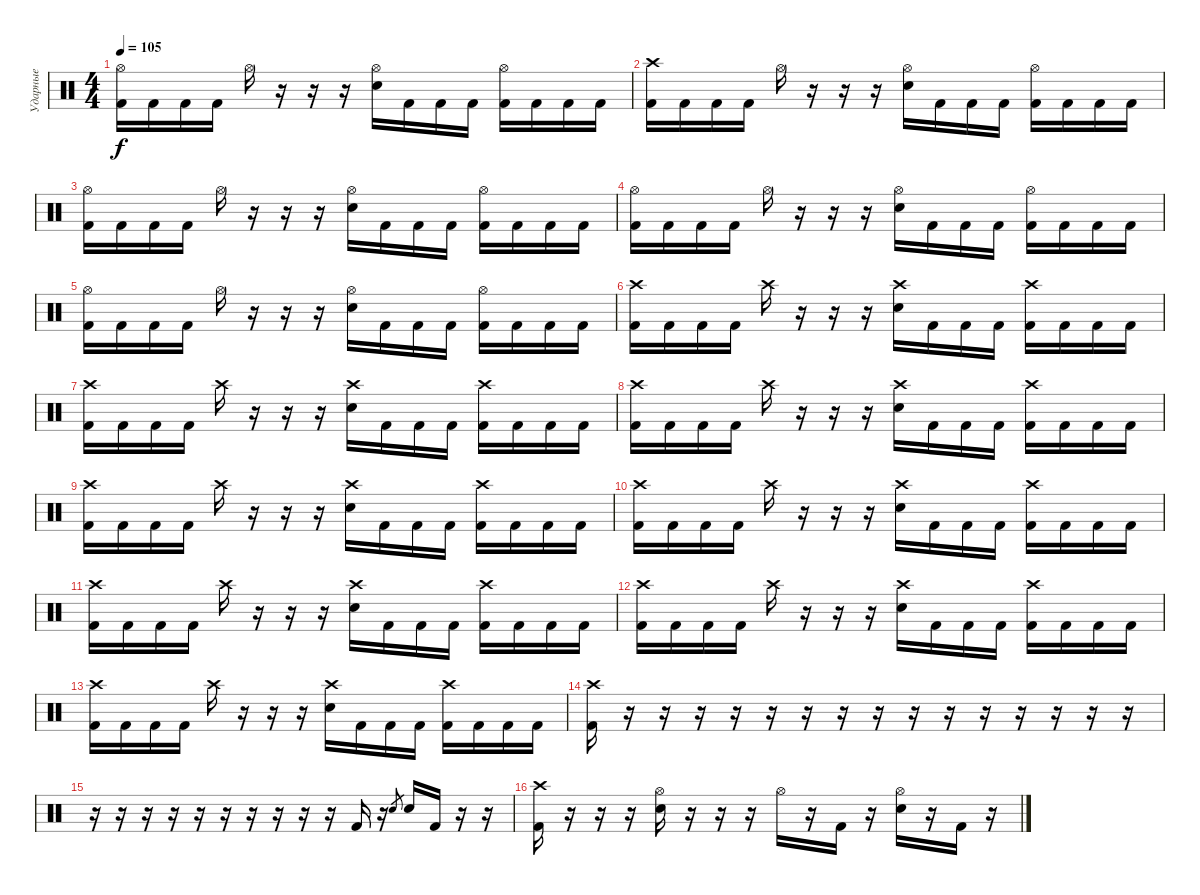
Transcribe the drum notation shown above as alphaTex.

\track ("Ударные" "Ударные") {instrument percussion}
\staff {score}
\articulation defaults
\ts (4 4)
\tempo 105
\clef neutral
\ks c
("Hi-Hat (open)" "Kick (hit) 2").16{dy f} "Kick (hit) 2".16 "Kick (hit) 2".16 "Kick (hit) 2".16 "Hi-Hat (open)".16 r.16 r.16 r.16 ("Hi-Hat (open)" "Electric Snare (hit)").16 "Kick (hit) 2".16 "Kick (hit) 2".16 "Kick (hit) 2".16 ("Hi-Hat (open)" "Kick (hit) 2").16 "Kick (hit) 2".16 "Kick (hit) 2".16 "Kick (hit) 2".16 |
("Crash high (hit)" "Kick (hit) 2").16 "Kick (hit) 2".16 "Kick (hit) 2".16 "Kick (hit) 2".16 "Hi-Hat (open)".16 r.16 r.16 r.16 ("Hi-Hat (open)" "Electric Snare (hit)").16 "Kick (hit) 2".16 "Kick (hit) 2".16 "Kick (hit) 2".16 ("Hi-Hat (open)" "Kick (hit) 2").16 "Kick (hit) 2".16 "Kick (hit) 2".16 "Kick (hit) 2".16 |
("Hi-Hat (open)" "Kick (hit) 2").16 "Kick (hit) 2".16 "Kick (hit) 2".16 "Kick (hit) 2".16 "Hi-Hat (open)".16 r.16 r.16 r.16 ("Hi-Hat (open)" "Electric Snare (hit)").16 "Kick (hit) 2".16 "Kick (hit) 2".16 "Kick (hit) 2".16 ("Hi-Hat (open)" "Kick (hit) 2").16 "Kick (hit) 2".16 "Kick (hit) 2".16 "Kick (hit) 2".16 |
("Hi-Hat (open)" "Kick (hit) 2").16 "Kick (hit) 2".16 "Kick (hit) 2".16 "Kick (hit) 2".16 "Hi-Hat (open)".16 r.16 r.16 r.16 ("Hi-Hat (open)" "Electric Snare (hit)").16 "Kick (hit) 2".16 "Kick (hit) 2".16 "Kick (hit) 2".16 ("Hi-Hat (open)" "Kick (hit) 2").16 "Kick (hit) 2".16 "Kick (hit) 2".16 "Kick (hit) 2".16 |
("Hi-Hat (open)" "Kick (hit) 2").16 "Kick (hit) 2".16 "Kick (hit) 2".16 "Kick (hit) 2".16 "Hi-Hat (open)".16 r.16 r.16 r.16 ("Hi-Hat (open)" "Electric Snare (hit)").16 "Kick (hit) 2".16 "Kick (hit) 2".16 "Kick (hit) 2".16 ("Hi-Hat (open)" "Kick (hit) 2").16 "Kick (hit) 2".16 "Kick (hit) 2".16 "Kick (hit) 2".16 |
("Crash high (hit)" "Kick (hit) 2").16 "Kick (hit) 2".16 "Kick (hit) 2".16 "Kick (hit) 2".16 "Crash high (hit)".16 r.16 r.16 r.16 ("Crash high (hit)" "Electric Snare (hit)").16 "Kick (hit) 2".16 "Kick (hit) 2".16 "Kick (hit) 2".16 ("Crash high (hit)" "Kick (hit) 2").16 "Kick (hit) 2".16 "Kick (hit) 2".16 "Kick (hit) 2".16 |
("Crash high (hit)" "Kick (hit) 2").16 "Kick (hit) 2".16 "Kick (hit) 2".16 "Kick (hit) 2".16 "Crash high (hit)".16 r.16 r.16 r.16 ("Crash high (hit)" "Electric Snare (hit)").16 "Kick (hit) 2".16 "Kick (hit) 2".16 "Kick (hit) 2".16 ("Crash high (hit)" "Kick (hit) 2").16 "Kick (hit) 2".16 "Kick (hit) 2".16 "Kick (hit) 2".16 |
("Crash high (hit)" "Kick (hit) 2").16 "Kick (hit) 2".16 "Kick (hit) 2".16 "Kick (hit) 2".16 "Crash high (hit)".16 r.16 r.16 r.16 ("Crash high (hit)" "Electric Snare (hit)").16 "Kick (hit) 2".16 "Kick (hit) 2".16 "Kick (hit) 2".16 ("Crash high (hit)" "Kick (hit) 2").16 "Kick (hit) 2".16 "Kick (hit) 2".16 "Kick (hit) 2".16 |
("Crash high (hit)" "Kick (hit) 2").16 "Kick (hit) 2".16 "Kick (hit) 2".16 "Kick (hit) 2".16 "Crash high (hit)".16 r.16 r.16 r.16 ("Crash high (hit)" "Electric Snare (hit)").16 "Kick (hit) 2".16 "Kick (hit) 2".16 "Kick (hit) 2".16 ("Crash high (hit)" "Kick (hit) 2").16 "Kick (hit) 2".16 "Kick (hit) 2".16 "Kick (hit) 2".16 |
("Crash high (hit)" "Kick (hit) 2").16 "Kick (hit) 2".16 "Kick (hit) 2".16 "Kick (hit) 2".16 "Crash high (hit)".16 r.16 r.16 r.16 ("Crash high (hit)" "Electric Snare (hit)").16 "Kick (hit) 2".16 "Kick (hit) 2".16 "Kick (hit) 2".16 ("Crash high (hit)" "Kick (hit) 2").16 "Kick (hit) 2".16 "Kick (hit) 2".16 "Kick (hit) 2".16 |
("Crash high (hit)" "Kick (hit) 2").16 "Kick (hit) 2".16 "Kick (hit) 2".16 "Kick (hit) 2".16 "Crash high (hit)".16 r.16 r.16 r.16 ("Crash high (hit)" "Electric Snare (hit)").16 "Kick (hit) 2".16 "Kick (hit) 2".16 "Kick (hit) 2".16 ("Crash high (hit)" "Kick (hit) 2").16 "Kick (hit) 2".16 "Kick (hit) 2".16 "Kick (hit) 2".16 |
("Crash high (hit)" "Kick (hit) 2").16 "Kick (hit) 2".16 "Kick (hit) 2".16 "Kick (hit) 2".16 "Crash high (hit)".16 r.16 r.16 r.16 ("Crash high (hit)" "Electric Snare (hit)").16 "Kick (hit) 2".16 "Kick (hit) 2".16 "Kick (hit) 2".16 ("Crash high (hit)" "Kick (hit) 2").16 "Kick (hit) 2".16 "Kick (hit) 2".16 "Kick (hit) 2".16 |
("Crash high (hit)" "Kick (hit) 2").16 "Kick (hit) 2".16 "Kick (hit) 2".16 "Kick (hit) 2".16 "Crash high (hit)".16 r.16 r.16 r.16 ("Crash high (hit)" "Electric Snare (hit)").16 "Kick (hit) 2".16 "Kick (hit) 2".16 "Kick (hit) 2".16 ("Crash high (hit)" "Kick (hit) 2").16 "Kick (hit) 2".16 "Kick (hit) 2".16 "Kick (hit) 2".16 |
("Crash high (hit)" "Kick (hit) 2").16 r.16 r.16 r.16 r.16 r.16 r.16 r.16 r.16 r.16 r.16 r.16 r.16 r.16 r.16 r.16 |
r.16 r.16 r.16 r.16 r.16 r.16 r.16 r.16 r.16 r.16 "Kick (hit) 2".16 r.16 "Electric Snare (hit)".8{gr} "Electric Snare (hit)".16 "Kick (hit) 2".16 r.16 r.16 |
("Crash high (hit)" "Kick (hit) 2").16 r.16 r.16 r.16 ("Hi-Hat (open)" "Electric Snare (hit)").16 r.16 r.16 r.16 "Hi-Hat (open)".16 r.16 "Kick (hit) 2".16 r.16 ("Hi-Hat (open)" "Electric Snare (hit)").16 r.16 "Kick (hit) 2".16 r.16
